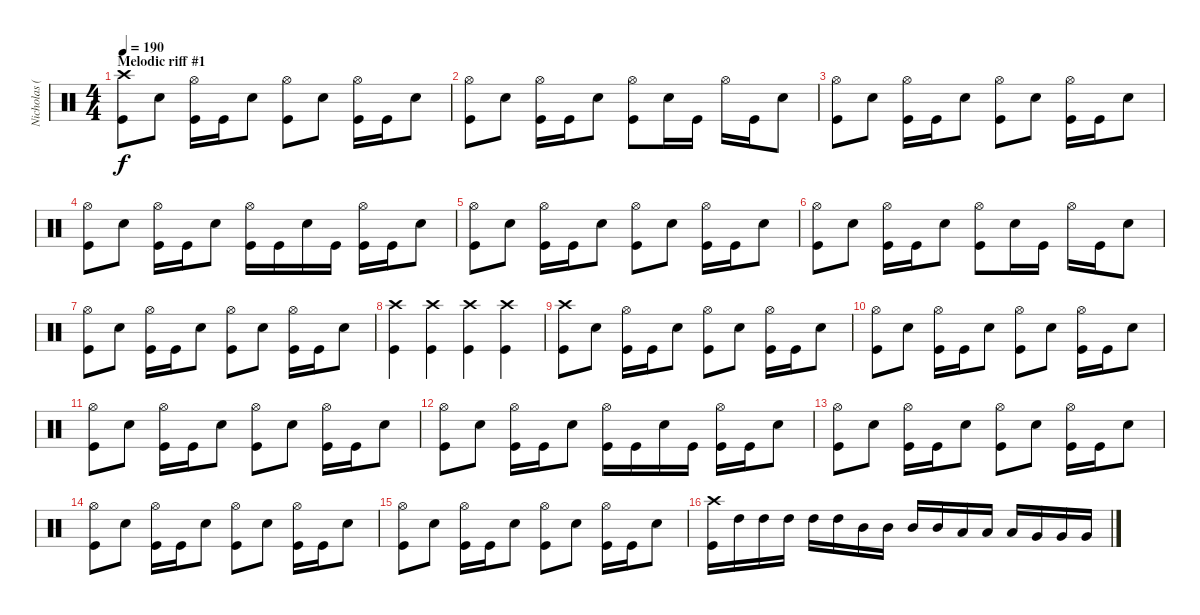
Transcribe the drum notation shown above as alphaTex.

\track ("Nicholas (Drums)" "Nicholas (") {instrument percussion}
\staff {score}
\articulation defaults
\ts (4 4)
\section ("" "Melodic riff #1")
\tempo 190
\clef neutral
\ks c
("Crash high (hit)" "Kick (hit)").8{dy f} "Electric Snare (hit)".8 ("Hi-Hat (open)" "Kick (hit)").16 "Kick (hit)".16 "Electric Snare (hit)".8 ("Hi-Hat (open)" "Kick (hit)").8 "Electric Snare (hit)".8 ("Hi-Hat (open)" "Kick (hit)").16 "Kick (hit)".16 "Electric Snare (hit)".8 |
("Hi-Hat (open)" "Kick (hit)").8 "Electric Snare (hit)".8 ("Hi-Hat (open)" "Kick (hit)").16 "Kick (hit)".16 "Electric Snare (hit)".8 ("Hi-Hat (open)" "Kick (hit)").8 "Electric Snare (hit)".16 "Kick (hit)".16 "Hi-Hat (open)".16 "Kick (hit)".16 "Electric Snare (hit)".8 |
("Hi-Hat (open)" "Kick (hit)").8 "Electric Snare (hit)".8 ("Hi-Hat (open)" "Kick (hit)").16 "Kick (hit)".16 "Electric Snare (hit)".8 ("Hi-Hat (open)" "Kick (hit)").8 "Electric Snare (hit)".8 ("Hi-Hat (open)" "Kick (hit)").16 "Kick (hit)".16 "Electric Snare (hit)".8 |
("Hi-Hat (open)" "Kick (hit)").8 "Electric Snare (hit)".8 ("Hi-Hat (open)" "Kick (hit)").16 "Kick (hit)".16 "Electric Snare (hit)".8 ("Hi-Hat (open)" "Kick (hit)").16 "Kick (hit)".16 "Electric Snare (hit)".16 "Kick (hit)".16 ("Hi-Hat (open)" "Kick (hit)").16 "Kick (hit)".16 "Electric Snare (hit)".8 |
("Hi-Hat (open)" "Kick (hit)").8 "Electric Snare (hit)".8 ("Hi-Hat (open)" "Kick (hit)").16 "Kick (hit)".16 "Electric Snare (hit)".8 ("Hi-Hat (open)" "Kick (hit)").8 "Electric Snare (hit)".8 ("Hi-Hat (open)" "Kick (hit)").16 "Kick (hit)".16 "Electric Snare (hit)".8 |
("Hi-Hat (open)" "Kick (hit)").8 "Electric Snare (hit)".8 ("Hi-Hat (open)" "Kick (hit)").16 "Kick (hit)".16 "Electric Snare (hit)".8 ("Hi-Hat (open)" "Kick (hit)").8 "Electric Snare (hit)".16 "Kick (hit)".16 "Hi-Hat (open)".16 "Kick (hit)".16 "Electric Snare (hit)".8 |
("Hi-Hat (open)" "Kick (hit)").8 "Electric Snare (hit)".8 ("Hi-Hat (open)" "Kick (hit)").16 "Kick (hit)".16 "Electric Snare (hit)".8 ("Hi-Hat (open)" "Kick (hit)").8 "Electric Snare (hit)".8 ("Hi-Hat (open)" "Kick (hit)").16 "Kick (hit)".16 "Electric Snare (hit)".8 |
("Crash high (hit)" "Kick (hit)").4 ("Crash high (hit)" "Kick (hit)").4 ("Crash high (hit)" "Kick (hit)").4 ("Crash high (hit)" "Kick (hit)").4 |
("Crash high (hit)" "Kick (hit)").8 "Electric Snare (hit)".8 ("Hi-Hat (open)" "Kick (hit)").16 "Kick (hit)".16 "Electric Snare (hit)".8 ("Hi-Hat (open)" "Kick (hit)").8 "Electric Snare (hit)".8 ("Hi-Hat (open)" "Kick (hit)").16 "Kick (hit)".16 "Electric Snare (hit)".8 |
("Hi-Hat (open)" "Kick (hit)").8 "Electric Snare (hit)".8 ("Hi-Hat (open)" "Kick (hit)").16 "Kick (hit)".16 "Electric Snare (hit)".8 ("Hi-Hat (open)" "Kick (hit)").8 "Electric Snare (hit)".8 ("Hi-Hat (open)" "Kick (hit)").16 "Kick (hit)".16 "Electric Snare (hit)".8 |
("Hi-Hat (open)" "Kick (hit)").8 "Electric Snare (hit)".8 ("Hi-Hat (open)" "Kick (hit)").16 "Kick (hit)".16 "Electric Snare (hit)".8 ("Hi-Hat (open)" "Kick (hit)").8 "Electric Snare (hit)".8 ("Hi-Hat (open)" "Kick (hit)").16 "Kick (hit)".16 "Electric Snare (hit)".8 |
("Hi-Hat (open)" "Kick (hit)").8 "Electric Snare (hit)".8 ("Hi-Hat (open)" "Kick (hit)").16 "Kick (hit)".16 "Electric Snare (hit)".8 ("Hi-Hat (open)" "Kick (hit)").16 "Kick (hit)".16 "Electric Snare (hit)".16 "Kick (hit)".16 ("Hi-Hat (open)" "Kick (hit)").16 "Kick (hit)".16 "Electric Snare (hit)".8 |
("Hi-Hat (open)" "Kick (hit)").8 "Electric Snare (hit)".8 ("Hi-Hat (open)" "Kick (hit)").16 "Kick (hit)".16 "Electric Snare (hit)".8 ("Hi-Hat (open)" "Kick (hit)").8 "Electric Snare (hit)".8 ("Hi-Hat (open)" "Kick (hit)").16 "Kick (hit)".16 "Electric Snare (hit)".8 |
("Hi-Hat (open)" "Kick (hit)").8 "Electric Snare (hit)".8 ("Hi-Hat (open)" "Kick (hit)").16 "Kick (hit)".16 "Electric Snare (hit)".8 ("Hi-Hat (open)" "Kick (hit)").8 "Electric Snare (hit)".8 ("Hi-Hat (open)" "Kick (hit)").16 "Kick (hit)".16 "Electric Snare (hit)".8 |
("Hi-Hat (open)" "Kick (hit)").8 "Electric Snare (hit)".8 ("Hi-Hat (open)" "Kick (hit)").16 "Kick (hit)".16 "Electric Snare (hit)".8 ("Hi-Hat (open)" "Kick (hit)").8 "Electric Snare (hit)".8 ("Hi-Hat (open)" "Kick (hit)").16 "Kick (hit)".16 "Electric Snare (hit)".8 |
("Crash high (hit)" "Kick (hit)").16 "High Tom (hit)".16 "High Tom (hit)".16 "High Tom (hit)".16 "High Tom (hit)".16 "High Tom (hit)".16 "Mid Tom (hit)".16 "Mid Tom (hit)".16 "Mid Tom (hit)".16 "Mid Tom (hit)".16 "Low Tom (hit)".16 "Low Tom (hit)".16 "Low Tom (hit)".16 "Very Low Tom (hit)".16 "Very Low Tom (hit)".16 "Very Low Tom (hit)".16
